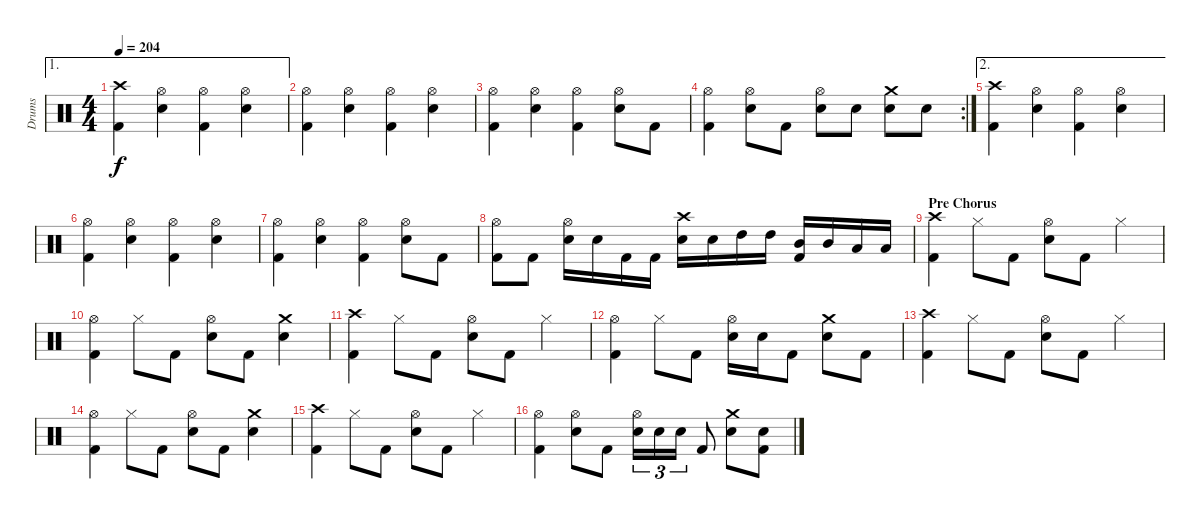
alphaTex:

\track ("Drums" "Drums") {instrument percussion}
\staff {score}
\articulation defaults
\ae 1
\ts (4 4)
\tempo 204
\clef neutral
\ks c
("Crash high (hit)" "Kick (hit) 2").4{dy f} ("Hi-Hat (open)" "Electric Snare (hit)").4 ("Hi-Hat (open)" "Kick (hit) 2").4 ("Hi-Hat (open)" "Electric Snare (hit)").4 |
("Hi-Hat (open)" "Kick (hit) 2").4 ("Hi-Hat (open)" "Electric Snare (hit)").4 ("Hi-Hat (open)" "Kick (hit) 2").4 ("Hi-Hat (open)" "Electric Snare (hit)").4 |
("Hi-Hat (open)" "Kick (hit) 2").4 ("Hi-Hat (open)" "Electric Snare (hit)").4 ("Hi-Hat (open)" "Kick (hit) 2").4 ("Hi-Hat (open)" "Electric Snare (hit)").8 "Kick (hit) 2".8 |
\rc 2
("Hi-Hat (open)" "Kick (hit) 2").4 ("Hi-Hat (open)" "Electric Snare (hit)").8 "Kick (hit) 2".8 ("Hi-Hat (open)" "Electric Snare (hit)").8 "Electric Snare (hit)".8 ("Crash medium (hit)" "Electric Snare (hit)").8 "Electric Snare (hit)".8 |
\ae 2
("Crash high (hit)" "Kick (hit) 2").4 ("Hi-Hat (open)" "Electric Snare (hit)").4 ("Hi-Hat (open)" "Kick (hit) 2").4 ("Hi-Hat (open)" "Electric Snare (hit)").4 |
("Hi-Hat (open)" "Kick (hit) 2").4 ("Hi-Hat (open)" "Electric Snare (hit)").4 ("Hi-Hat (open)" "Kick (hit) 2").4 ("Hi-Hat (open)" "Electric Snare (hit)").4 |
("Hi-Hat (open)" "Kick (hit) 2").4 ("Hi-Hat (open)" "Electric Snare (hit)").4 ("Hi-Hat (open)" "Kick (hit) 2").4 ("Hi-Hat (open)" "Electric Snare (hit)").8 "Kick (hit) 2".8 |
("Hi-Hat (open)" "Kick (hit) 2").8 "Kick (hit) 2".8 ("Hi-Hat (open)" "Electric Snare (hit)").16 "Electric Snare (hit)".16 "Kick (hit) 2".16 "Kick (hit) 2".16 ("Crash high (hit)" "Electric Snare (hit)").16 "Electric Snare (hit)".16 "High Tom (hit)".16 "High Tom (hit)".16 ("Mid Tom (hit)" "Kick (hit) 2").16 "Mid Tom (hit)".16 "Low Tom (hit)".16 "Low Tom (hit)".16 |
\section ("" "Pre Chorus")
("Crash high (hit)" "Kick (hit) 2").4 "Hi-Hat (closed)".8 "Kick (hit) 2".8 ("Hi-Hat (open)" "Electric Snare (hit)").8 "Kick (hit) 2".8 "Hi-Hat (closed)".4 |
("Hi-Hat (open)" "Kick (hit) 2").4 "Hi-Hat (closed)".8 "Kick (hit) 2".8 ("Hi-Hat (open)" "Electric Snare (hit)").8 "Kick (hit) 2".8 ("Crash medium (hit)" "Electric Snare (hit)").4 |
("Crash high (hit)" "Kick (hit) 2").4 "Hi-Hat (closed)".8 "Kick (hit) 2".8 ("Hi-Hat (open)" "Electric Snare (hit)").8 "Kick (hit) 2".8 "Hi-Hat (closed)".4 |
("Hi-Hat (open)" "Kick (hit) 2").4 "Hi-Hat (closed)".8 "Kick (hit) 2".8 ("Hi-Hat (open)" "Electric Snare (hit)").16 "Electric Snare (hit)".16 "Kick (hit) 2".8 ("Crash medium (hit)" "Electric Snare (hit)").8 "Kick (hit) 2".8 |
("Crash high (hit)" "Kick (hit) 2").4 "Hi-Hat (closed)".8 "Kick (hit) 2".8 ("Hi-Hat (open)" "Electric Snare (hit)").8 "Kick (hit) 2".8 "Hi-Hat (closed)".4 |
("Hi-Hat (open)" "Kick (hit) 2").4 "Hi-Hat (closed)".8 "Kick (hit) 2".8 ("Hi-Hat (open)" "Electric Snare (hit)").8 "Kick (hit) 2".8 ("Crash medium (hit)" "Electric Snare (hit)").4 |
("Crash high (hit)" "Kick (hit) 2").4 "Hi-Hat (closed)".8 "Kick (hit) 2".8 ("Hi-Hat (open)" "Electric Snare (hit)").8 "Kick (hit) 2".8 "Hi-Hat (closed)".4 |
("Hi-Hat (open)" "Kick (hit) 2").4 ("Hi-Hat (open)" "Electric Snare (hit)").8 "Kick (hit) 2".8 ("Hi-Hat (open)" "Electric Snare (hit)").16{tu (3 2)} "Electric Snare (hit)".16{tu (3 2)} "Electric Snare (hit)".16{tu (3 2)} "Kick (hit) 2".8 ("Crash medium (hit)" "Electric Snare (hit)").8 ("Electric Snare (hit)" "Kick (hit) 2").8
